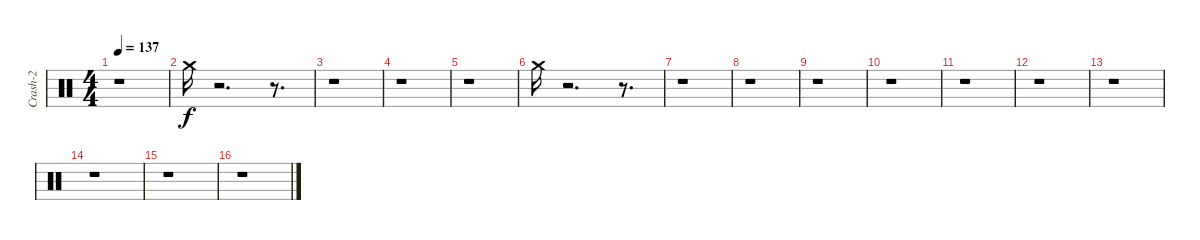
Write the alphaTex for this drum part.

\track ("Crash-2" "Crash-2") {instrument percussion}
\staff {score}
\articulation defaults
\ts (4 4)
\tempo 137
\clef neutral
\ks c
r.1{dy f} |
"Crash medium (hit)".16 r.2{d} r.8{d} |
r.1 |
r.1 |
r.1 |
"Crash medium (hit)".16 r.2{d} r.8{d} |
r.1 |
r.1 |
r.1 |
r.1 |
r.1 |
r.1 |
r.1 |
r.1 |
r.1 |
r.1
